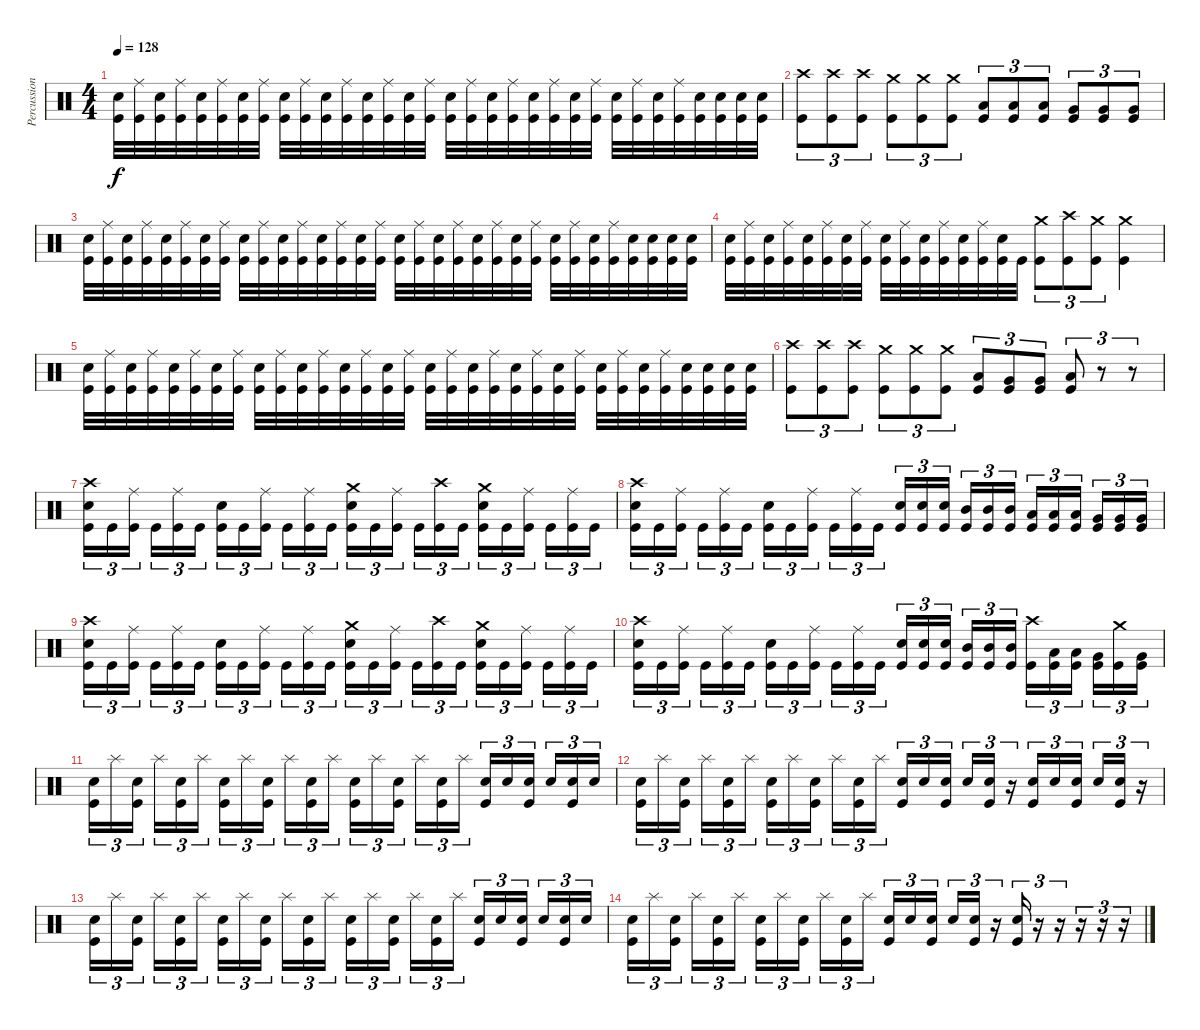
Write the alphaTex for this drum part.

\track ("Percussion" "Percussion") {instrument percussion}
\staff {score}
\articulation defaults
\ts (4 4)
\tempo 128
\clef neutral
\ks c
("Electric Snare (hit)" "Kick (hit)").32{dy f} ("Ride (middle)" "Kick (hit)").32 ("Electric Snare (hit)" "Kick (hit)").32 ("Ride (middle)" "Kick (hit)").32 ("Electric Snare (hit)" "Kick (hit)").32 ("Ride (middle)" "Kick (hit)").32 ("Electric Snare (hit)" "Kick (hit)").32 ("Ride (middle)" "Kick (hit)").32 ("Electric Snare (hit)" "Kick (hit)").32 ("Ride (middle)" "Kick (hit)").32 ("Electric Snare (hit)" "Kick (hit)").32 ("Ride (middle)" "Kick (hit)").32 ("Electric Snare (hit)" "Kick (hit)").32 ("Ride (middle)" "Kick (hit)").32 ("Electric Snare (hit)" "Kick (hit)").32 ("Ride (middle)" "Kick (hit)").32 ("Electric Snare (hit)" "Kick (hit)").32 ("Ride (middle)" "Kick (hit)").32 ("Electric Snare (hit)" "Kick (hit)").32 ("Ride (middle)" "Kick (hit)").32 ("Electric Snare (hit)" "Kick (hit)").32 ("Ride (middle)" "Kick (hit)").32 ("Electric Snare (hit)" "Kick (hit)").32 ("Ride (middle)" "Kick (hit)").32 ("Electric Snare (hit)" "Kick (hit)").32 ("Ride (middle)" "Kick (hit)").32 ("Electric Snare (hit)" "Kick (hit)").32 ("Ride (middle)" "Kick (hit)").32 ("Electric Snare (hit)" "Kick (hit)").32 ("Electric Snare (hit)" "Kick (hit)").32 ("Electric Snare (hit)" "Kick (hit)").32 ("Electric Snare (hit)" "Kick (hit)").32 |
("Crash high (hit)" "Kick (hit)").8{tu (3 2)} ("Crash high (hit)" "Kick (hit)").8{tu (3 2)} ("Crash high (hit)" "Kick (hit)").8{tu (3 2)} ("Crash medium (hit)" "Kick (hit)").8{tu (3 2)} ("Crash medium (hit)" "Kick (hit)").8{tu (3 2)} ("Crash medium (hit)" "Kick (hit)").8{tu (3 2)} ("Low Tom (hit)" "Kick (hit)").8{tu (3 2)} ("Low Tom (hit)" "Kick (hit)").8{tu (3 2)} ("Low Tom (hit)" "Kick (hit)").8{tu (3 2)} ("Very Low Tom (hit)" "Kick (hit)").8{tu (3 2)} ("Very Low Tom (hit)" "Kick (hit)").8{tu (3 2)} ("Very Low Tom (hit)" "Kick (hit)").8{tu (3 2)} |
("Electric Snare (hit)" "Kick (hit)").32 ("Ride (middle)" "Kick (hit)").32 ("Electric Snare (hit)" "Kick (hit)").32 ("Ride (middle)" "Kick (hit)").32 ("Electric Snare (hit)" "Kick (hit)").32 ("Ride (middle)" "Kick (hit)").32 ("Electric Snare (hit)" "Kick (hit)").32 ("Ride (middle)" "Kick (hit)").32 ("Electric Snare (hit)" "Kick (hit)").32 ("Ride (middle)" "Kick (hit)").32 ("Electric Snare (hit)" "Kick (hit)").32 ("Ride (middle)" "Kick (hit)").32 ("Electric Snare (hit)" "Kick (hit)").32 ("Ride (middle)" "Kick (hit)").32 ("Electric Snare (hit)" "Kick (hit)").32 ("Ride (middle)" "Kick (hit)").32 ("Electric Snare (hit)" "Kick (hit)").32 ("Ride (middle)" "Kick (hit)").32 ("Electric Snare (hit)" "Kick (hit)").32 ("Ride (middle)" "Kick (hit)").32 ("Electric Snare (hit)" "Kick (hit)").32 ("Ride (middle)" "Kick (hit)").32 ("Electric Snare (hit)" "Kick (hit)").32 ("Ride (middle)" "Kick (hit)").32 ("Electric Snare (hit)" "Kick (hit)").32 ("Ride (middle)" "Kick (hit)").32 ("Electric Snare (hit)" "Kick (hit)").32 ("Ride (middle)" "Kick (hit)").32 ("Electric Snare (hit)" "Kick (hit)").32 ("Electric Snare (hit)" "Kick (hit)").32 ("Electric Snare (hit)" "Kick (hit)").32 ("Electric Snare (hit)" "Kick (hit)").32 |
("Electric Snare (hit)" "Kick (hit)").32 ("Ride (middle)" "Kick (hit)").32 ("Electric Snare (hit)" "Kick (hit)").32 ("Ride (middle)" "Kick (hit)").32 ("Electric Snare (hit)" "Kick (hit)").32 ("Ride (middle)" "Kick (hit)").32 ("Electric Snare (hit)" "Kick (hit)").32 ("Ride (middle)" "Kick (hit)").32 ("Electric Snare (hit)" "Kick (hit)").32 ("Ride (middle)" "Kick (hit)").32 ("Electric Snare (hit)" "Kick (hit)").32 ("Ride (middle)" "Kick (hit)").32 ("Electric Snare (hit)" "Kick (hit)").32 ("Ride (middle)" "Kick (hit)").32 ("Electric Snare (hit)" "Kick (hit)").32 "Kick (hit)".32 ("Crash medium (hit)" "Kick (hit)").8{tu (3 2)} ("Crash high (hit)" "Kick (hit)").8{tu (3 2)} ("Crash medium (hit)" "Kick (hit)").8{tu (3 2)} ("Crash medium (hit)" "Kick (hit)").4 |
("Electric Snare (hit)" "Kick (hit)").32 ("Ride (middle)" "Kick (hit)").32 ("Electric Snare (hit)" "Kick (hit)").32 ("Ride (middle)" "Kick (hit)").32 ("Electric Snare (hit)" "Kick (hit)").32 ("Ride (middle)" "Kick (hit)").32 ("Electric Snare (hit)" "Kick (hit)").32 ("Ride (middle)" "Kick (hit)").32 ("Electric Snare (hit)" "Kick (hit)").32 ("Ride (middle)" "Kick (hit)").32 ("Electric Snare (hit)" "Kick (hit)").32 ("Ride (middle)" "Kick (hit)").32 ("Electric Snare (hit)" "Kick (hit)").32 ("Ride (middle)" "Kick (hit)").32 ("Electric Snare (hit)" "Kick (hit)").32 ("Ride (middle)" "Kick (hit)").32 ("Electric Snare (hit)" "Kick (hit)").32 ("Ride (middle)" "Kick (hit)").32 ("Electric Snare (hit)" "Kick (hit)").32 ("Ride (middle)" "Kick (hit)").32 ("Electric Snare (hit)" "Kick (hit)").32 ("Ride (middle)" "Kick (hit)").32 ("Electric Snare (hit)" "Kick (hit)").32 ("Ride (middle)" "Kick (hit)").32 ("Electric Snare (hit)" "Kick (hit)").32 ("Ride (middle)" "Kick (hit)").32 ("Electric Snare (hit)" "Kick (hit)").32 ("Ride (middle)" "Kick (hit)").32 ("Electric Snare (hit)" "Kick (hit)").32 ("Electric Snare (hit)" "Kick (hit)").32 ("Electric Snare (hit)" "Kick (hit)").32 ("Electric Snare (hit)" "Kick (hit)").32 |
("Crash high (hit)" "Kick (hit)").8{tu (3 2)} ("Crash high (hit)" "Kick (hit)").8{tu (3 2)} ("Crash high (hit)" "Kick (hit)").8{tu (3 2)} ("Crash medium (hit)" "Kick (hit)").8{tu (3 2)} ("Crash medium (hit)" "Kick (hit)").8{tu (3 2)} ("Crash medium (hit)" "Kick (hit)").8{tu (3 2)} ("Low Tom (hit)" "Kick (hit)").8{tu (3 2)} ("Very Low Tom (hit)" "Kick (hit)").8{tu (3 2)} ("Very Low Tom (hit)" "Kick (hit)").8{tu (3 2)} ("Low Floor Tom (hit)" "Kick (hit)").8{tu (3 2)} r.8{tu (3 2)} r.8{tu (3 2)} |
("Crash high (hit)" "Electric Snare (hit)" "Kick (hit)").16{tu (3 2)} "Kick (hit)".16{tu (3 2)} ("Ride (middle)" "Kick (hit)").16{tu (3 2)} "Kick (hit)".16{tu (3 2)} ("Ride (middle)" "Kick (hit)").16{tu (3 2)} "Kick (hit)".16{tu (3 2)} ("Electric Snare (hit)" "Kick (hit)").16{tu (3 2)} "Kick (hit)".16{tu (3 2)} ("Ride (middle)" "Kick (hit)").16{tu (3 2)} "Kick (hit)".16{tu (3 2)} ("Ride (middle)" "Kick (hit)").16{tu (3 2)} "Kick (hit)".16{tu (3 2)} ("Crash medium (hit)" "Electric Snare (hit)" "Kick (hit)").16{tu (3 2)} "Kick (hit)".16{tu (3 2)} ("Ride (middle)" "Kick (hit)").16{tu (3 2)} "Kick (hit)".16{tu (3 2)} ("Crash high (hit)" "Kick (hit)").16{tu (3 2)} "Kick (hit)".16{tu (3 2)} ("Crash medium (hit)" "Electric Snare (hit)" "Kick (hit)").16{tu (3 2)} "Kick (hit)".16{tu (3 2)} ("Ride (middle)" "Kick (hit)").16{tu (3 2)} "Kick (hit)".16{tu (3 2)} ("Ride (middle)" "Kick (hit)").16{tu (3 2)} "Kick (hit)".16{tu (3 2)} |
("Crash high (hit)" "Electric Snare (hit)" "Kick (hit)").16{tu (3 2)} "Kick (hit)".16{tu (3 2)} ("Ride (middle)" "Kick (hit)").16{tu (3 2)} "Kick (hit)".16{tu (3 2)} ("Ride (middle)" "Kick (hit)").16{tu (3 2)} "Kick (hit)".16{tu (3 2)} ("Electric Snare (hit)" "Kick (hit)").16{tu (3 2)} "Kick (hit)".16{tu (3 2)} ("Ride (middle)" "Kick (hit)").16{tu (3 2)} "Kick (hit)".16{tu (3 2)} ("Ride (middle)" "Kick (hit)").16{tu (3 2)} "Kick (hit)".16{tu (3 2)} ("Electric Snare (hit)" "Kick (hit)").16{tu (3 2)} ("Electric Snare (hit)" "Kick (hit)").16{tu (3 2)} ("Electric Snare (hit)" "Kick (hit)").16{tu (3 2)} ("Mid Tom (hit)" "Kick (hit)").16{tu (3 2)} ("Mid Tom (hit)" "Kick (hit)").16{tu (3 2)} ("Mid Tom (hit)" "Kick (hit)").16{tu (3 2)} ("Low Tom (hit)" "Kick (hit)").16{tu (3 2)} ("Low Tom (hit)" "Kick (hit)").16{tu (3 2)} ("Low Tom (hit)" "Kick (hit)").16{tu (3 2)} ("Very Low Tom (hit)" "Kick (hit)").16{tu (3 2)} ("Very Low Tom (hit)" "Kick (hit)").16{tu (3 2)} ("Very Low Tom (hit)" "Kick (hit)").16{tu (3 2)} |
("Crash high (hit)" "Electric Snare (hit)" "Kick (hit)").16{tu (3 2)} "Kick (hit)".16{tu (3 2)} ("Ride (middle)" "Kick (hit)").16{tu (3 2)} "Kick (hit)".16{tu (3 2)} ("Ride (middle)" "Kick (hit)").16{tu (3 2)} "Kick (hit)".16{tu (3 2)} ("Electric Snare (hit)" "Kick (hit)").16{tu (3 2)} "Kick (hit)".16{tu (3 2)} ("Ride (middle)" "Kick (hit)").16{tu (3 2)} "Kick (hit)".16{tu (3 2)} ("Ride (middle)" "Kick (hit)").16{tu (3 2)} "Kick (hit)".16{tu (3 2)} ("Crash medium (hit)" "Electric Snare (hit)" "Kick (hit)").16{tu (3 2)} "Kick (hit)".16{tu (3 2)} ("Ride (middle)" "Kick (hit)").16{tu (3 2)} "Kick (hit)".16{tu (3 2)} ("Crash high (hit)" "Kick (hit)").16{tu (3 2)} "Kick (hit)".16{tu (3 2)} ("Crash medium (hit)" "Electric Snare (hit)" "Kick (hit)").16{tu (3 2)} "Kick (hit)".16{tu (3 2)} ("Ride (middle)" "Kick (hit)").16{tu (3 2)} "Kick (hit)".16{tu (3 2)} ("Ride (middle)" "Kick (hit)").16{tu (3 2)} "Kick (hit)".16{tu (3 2)} |
("Crash high (hit)" "Electric Snare (hit)" "Kick (hit)").16{tu (3 2)} "Kick (hit)".16{tu (3 2)} ("Ride (middle)" "Kick (hit)").16{tu (3 2)} "Kick (hit)".16{tu (3 2)} ("Ride (middle)" "Kick (hit)").16{tu (3 2)} "Kick (hit)".16{tu (3 2)} ("Electric Snare (hit)" "Kick (hit)").16{tu (3 2)} "Kick (hit)".16{tu (3 2)} ("Ride (middle)" "Kick (hit)").16{tu (3 2)} "Kick (hit)".16{tu (3 2)} ("Ride (middle)" "Kick (hit)").16{tu (3 2)} "Kick (hit)".16{tu (3 2)} ("Electric Snare (hit)" "Kick (hit)").16{tu (3 2)} ("Electric Snare (hit)" "Kick (hit)").16{tu (3 2)} ("Electric Snare (hit)" "Kick (hit)").16{tu (3 2)} ("Mid Tom (hit)" "Kick (hit)").16{tu (3 2)} ("Mid Tom (hit)" "Kick (hit)").16{tu (3 2)} ("Mid Tom (hit)" "Kick (hit)").16{tu (3 2)} ("Crash high (hit)" "Kick (hit)").16{tu (3 2)} ("Low Tom (hit)" "Kick (hit)").16{tu (3 2)} ("Low Tom (hit)" "Kick (hit)").16{tu (3 2)} ("Very Low Tom (hit)" "Kick (hit)").16{tu (3 2)} ("Crash medium (hit)" "Kick (hit)").16{tu (3 2)} ("Very Low Tom (hit)" "Kick (hit)").16{tu (3 2)} |
("Electric Snare (hit)" "Kick (hit)").16{tu (3 2)} "Splash (hit)".16{tu (3 2)} ("Electric Snare (hit)" "Kick (hit)").16{tu (3 2)} "Splash (hit)".16{tu (3 2)} ("Electric Snare (hit)" "Kick (hit)").16{tu (3 2)} "Splash (hit)".16{tu (3 2)} ("Electric Snare (hit)" "Kick (hit)").16{tu (3 2)} "Splash (hit)".16{tu (3 2)} ("Electric Snare (hit)" "Kick (hit)").16{tu (3 2)} "Splash (hit)".16{tu (3 2)} ("Electric Snare (hit)" "Kick (hit)").16{tu (3 2)} "Splash (hit)".16{tu (3 2)} ("Electric Snare (hit)" "Kick (hit)").16{tu (3 2)} "Splash (hit)".16{tu (3 2)} ("Electric Snare (hit)" "Kick (hit)").16{tu (3 2)} "Splash (hit)".16{tu (3 2)} ("Electric Snare (hit)" "Kick (hit)").16{tu (3 2)} "Splash (hit)".16{tu (3 2)} ("Electric Snare (hit)" "Kick (hit)").16{tu (3 2)} "Electric Snare (hit)".16{tu (3 2)} ("Electric Snare (hit)" "Kick (hit)").16{tu (3 2)} "Electric Snare (hit)".16{tu (3 2)} ("Electric Snare (hit)" "Kick (hit)").16{tu (3 2)} "Electric Snare (hit)".16{tu (3 2)} |
("Electric Snare (hit)" "Kick (hit)").16{tu (3 2)} "Splash (hit)".16{tu (3 2)} ("Electric Snare (hit)" "Kick (hit)").16{tu (3 2)} "Splash (hit)".16{tu (3 2)} ("Electric Snare (hit)" "Kick (hit)").16{tu (3 2)} "Splash (hit)".16{tu (3 2)} ("Electric Snare (hit)" "Kick (hit)").16{tu (3 2)} "Splash (hit)".16{tu (3 2)} ("Electric Snare (hit)" "Kick (hit)").16{tu (3 2)} "Splash (hit)".16{tu (3 2)} ("Electric Snare (hit)" "Kick (hit)").16{tu (3 2)} "Splash (hit)".16{tu (3 2)} ("Electric Snare (hit)" "Kick (hit)").16{tu (3 2)} "Electric Snare (hit)".16{tu (3 2)} ("Electric Snare (hit)" "Kick (hit)").16{tu (3 2)} "Electric Snare (hit)".16{tu (3 2)} ("Electric Snare (hit)" "Kick (hit)").16{tu (3 2)} r.16{tu (3 2)} ("Electric Snare (hit)" "Kick (hit)").16{tu (3 2)} "Electric Snare (hit)".16{tu (3 2)} ("Electric Snare (hit)" "Kick (hit)").16{tu (3 2)} "Electric Snare (hit)".16{tu (3 2)} ("Electric Snare (hit)" "Kick (hit)").16{tu (3 2)} r.16{tu (3 2)} |
("Electric Snare (hit)" "Kick (hit)").16{tu (3 2)} "Splash (hit)".16{tu (3 2)} ("Electric Snare (hit)" "Kick (hit)").16{tu (3 2)} "Splash (hit)".16{tu (3 2)} ("Electric Snare (hit)" "Kick (hit)").16{tu (3 2)} "Splash (hit)".16{tu (3 2)} ("Electric Snare (hit)" "Kick (hit)").16{tu (3 2)} "Splash (hit)".16{tu (3 2)} ("Electric Snare (hit)" "Kick (hit)").16{tu (3 2)} "Splash (hit)".16{tu (3 2)} ("Electric Snare (hit)" "Kick (hit)").16{tu (3 2)} "Splash (hit)".16{tu (3 2)} ("Electric Snare (hit)" "Kick (hit)").16{tu (3 2)} "Splash (hit)".16{tu (3 2)} ("Electric Snare (hit)" "Kick (hit)").16{tu (3 2)} "Splash (hit)".16{tu (3 2)} ("Electric Snare (hit)" "Kick (hit)").16{tu (3 2)} "Splash (hit)".16{tu (3 2)} ("Electric Snare (hit)" "Kick (hit)").16{tu (3 2)} "Electric Snare (hit)".16{tu (3 2)} ("Electric Snare (hit)" "Kick (hit)").16{tu (3 2)} "Electric Snare (hit)".16{tu (3 2)} ("Electric Snare (hit)" "Kick (hit)").16{tu (3 2)} "Electric Snare (hit)".16{tu (3 2)} |
("Electric Snare (hit)" "Kick (hit)").16{tu (3 2)} "Splash (hit)".16{tu (3 2)} ("Electric Snare (hit)" "Kick (hit)").16{tu (3 2)} "Splash (hit)".16{tu (3 2)} ("Electric Snare (hit)" "Kick (hit)").16{tu (3 2)} "Splash (hit)".16{tu (3 2)} ("Electric Snare (hit)" "Kick (hit)").16{tu (3 2)} "Splash (hit)".16{tu (3 2)} ("Electric Snare (hit)" "Kick (hit)").16{tu (3 2)} "Splash (hit)".16{tu (3 2)} ("Electric Snare (hit)" "Kick (hit)").16{tu (3 2)} "Splash (hit)".16{tu (3 2)} ("Electric Snare (hit)" "Kick (hit)").16{tu (3 2)} "Electric Snare (hit)".16{tu (3 2)} ("Electric Snare (hit)" "Kick (hit)").16{tu (3 2)} "Electric Snare (hit)".16{tu (3 2)} ("Electric Snare (hit)" "Kick (hit)").16{tu (3 2)} r.16{tu (3 2)} ("Electric Snare (hit)" "Kick (hit)").16{tu (3 2)} r.16{tu (3 2)} r.16{tu (3 2)} r.16{tu (3 2)} r.16{tu (3 2)} r.16{tu (3 2)}
